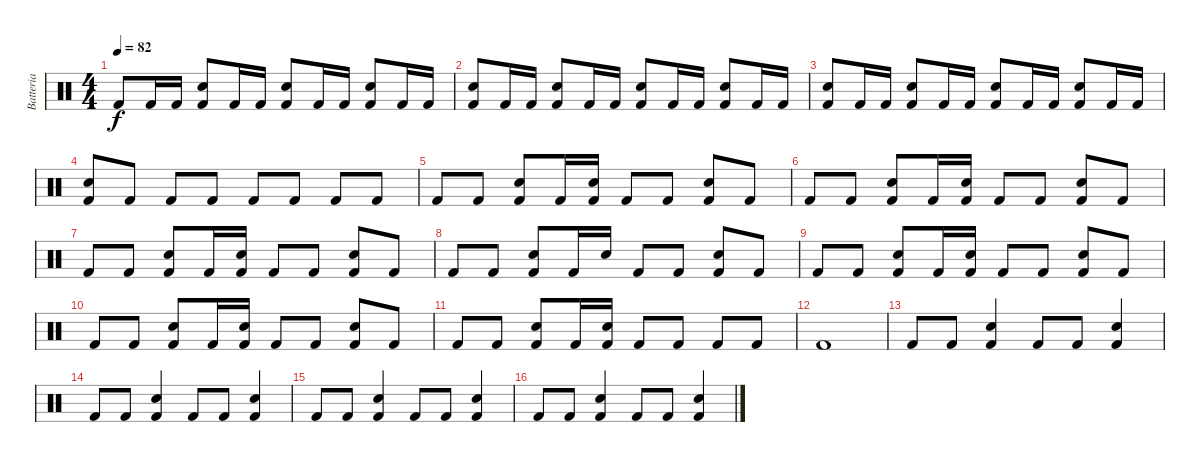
\track ("Batteria" "Batteria") {instrument percussion}
\staff {score}
\articulation defaults
\ts (4 4)
\tempo 82
\clef neutral
\ks c "Kick (hit) 2".8{dy f} "Kick (hit) 2".16 "Kick (hit) 2".16
("Snare (hit) 2" "Kick (hit) 2").8 "Kick (hit) 2".16 "Kick (hit) 2".16 ("Snare (hit) 2" "Kick (hit) 2").8 "Kick (hit) 2".16 "Kick (hit) 2".16 ("Snare (hit) 2" "Kick (hit) 2").8 "Kick (hit) 2".16 "Kick (hit) 2".16 |
("Snare (hit) 2" "Kick (hit) 2").8 "Kick (hit) 2".16 "Kick (hit) 2".16 ("Snare (hit) 2" "Kick (hit) 2").8 "Kick (hit) 2".16 "Kick (hit) 2".16 ("Snare (hit) 2" "Kick (hit) 2").8 "Kick (hit) 2".16 "Kick (hit) 2".16 ("Snare (hit) 2" "Kick (hit) 2").8 "Kick (hit) 2".16 "Kick (hit) 2".16 |
("Snare (hit) 2" "Kick (hit) 2").8 "Kick (hit) 2".16 "Kick (hit) 2".16 ("Snare (hit) 2" "Kick (hit) 2").8 "Kick (hit) 2".16 "Kick (hit) 2".16 ("Snare (hit) 2" "Kick (hit) 2").8 "Kick (hit) 2".16 "Kick (hit) 2".16 ("Snare (hit) 2" "Kick (hit) 2").8 "Kick (hit) 2".16 "Kick (hit) 2".16 |
("Snare (hit) 2" "Kick (hit) 2").8 "Kick (hit) 2".8 "Kick (hit) 2".8 "Kick (hit) 2".8 "Kick (hit) 2".8 "Kick (hit) 2".8 "Kick (hit) 2".8 "Kick (hit) 2".8 |
"Kick (hit) 2".8 "Kick (hit) 2".8 ("Snare (hit) 2" "Kick (hit) 2").8 "Kick (hit) 2".16 ("Snare (hit) 2" "Kick (hit) 2").16 "Kick (hit) 2".8 "Kick (hit) 2".8 ("Snare (hit) 2" "Kick (hit) 2").8 "Kick (hit) 2".8 |
"Kick (hit) 2".8 "Kick (hit) 2".8 ("Snare (hit) 2" "Kick (hit) 2").8 "Kick (hit) 2".16 ("Snare (hit) 2" "Kick (hit) 2").16 "Kick (hit) 2".8 "Kick (hit) 2".8 ("Snare (hit) 2" "Kick (hit) 2").8 "Kick (hit) 2".8 |
"Kick (hit) 2".8 "Kick (hit) 2".8 ("Snare (hit) 2" "Kick (hit) 2").8 "Kick (hit) 2".16 ("Snare (hit) 2" "Kick (hit) 2").16 "Kick (hit) 2".8 "Kick (hit) 2".8 ("Snare (hit) 2" "Kick (hit) 2").8 "Kick (hit) 2".8 |
"Kick (hit) 2".8 "Kick (hit) 2".8 ("Snare (hit) 2" "Kick (hit) 2").8 "Kick (hit) 2".16 "Snare (hit) 2".16 "Kick (hit) 2".8 "Kick (hit) 2".8 ("Snare (hit) 2" "Kick (hit) 2").8 "Kick (hit) 2".8 |
"Kick (hit) 2".8 "Kick (hit) 2".8 ("Snare (hit) 2" "Kick (hit) 2").8 "Kick (hit) 2".16 ("Snare (hit) 2" "Kick (hit) 2").16 "Kick (hit) 2".8 "Kick (hit) 2".8 ("Snare (hit) 2" "Kick (hit) 2").8 "Kick (hit) 2".8 |
"Kick (hit) 2".8 "Kick (hit) 2".8 ("Snare (hit) 2" "Kick (hit) 2").8 "Kick (hit) 2".16 ("Snare (hit) 2" "Kick (hit) 2").16 "Kick (hit) 2".8 "Kick (hit) 2".8 ("Snare (hit) 2" "Kick (hit) 2").8 "Kick (hit) 2".8 |
"Kick (hit) 2".8 "Kick (hit) 2".8 ("Snare (hit) 2" "Kick (hit) 2").8 "Kick (hit) 2".16 ("Snare (hit) 2" "Kick (hit) 2").16 "Kick (hit) 2".8 "Kick (hit) 2".8 "Kick (hit) 2".8 "Kick (hit) 2".8 |
"Kick (hit) 2".1 |
"Kick (hit) 2".8 "Kick (hit) 2".8 ("Snare (hit) 2" "Kick (hit) 2").4 "Kick (hit) 2".8 "Kick (hit) 2".8 ("Snare (hit) 2" "Kick (hit) 2").4 |
"Kick (hit) 2".8 "Kick (hit) 2".8 ("Snare (hit) 2" "Kick (hit) 2").4 "Kick (hit) 2".8 "Kick (hit) 2".8 ("Snare (hit) 2" "Kick (hit) 2").4 |
"Kick (hit) 2".8 "Kick (hit) 2".8 ("Snare (hit) 2" "Kick (hit) 2").4 "Kick (hit) 2".8 "Kick (hit) 2".8 ("Snare (hit) 2" "Kick (hit) 2").4 |
"Kick (hit) 2".8 "Kick (hit) 2".8 ("Snare (hit) 2" "Kick (hit) 2").4 "Kick (hit) 2".8 "Kick (hit) 2".8 ("Snare (hit) 2" "Kick (hit) 2").4
